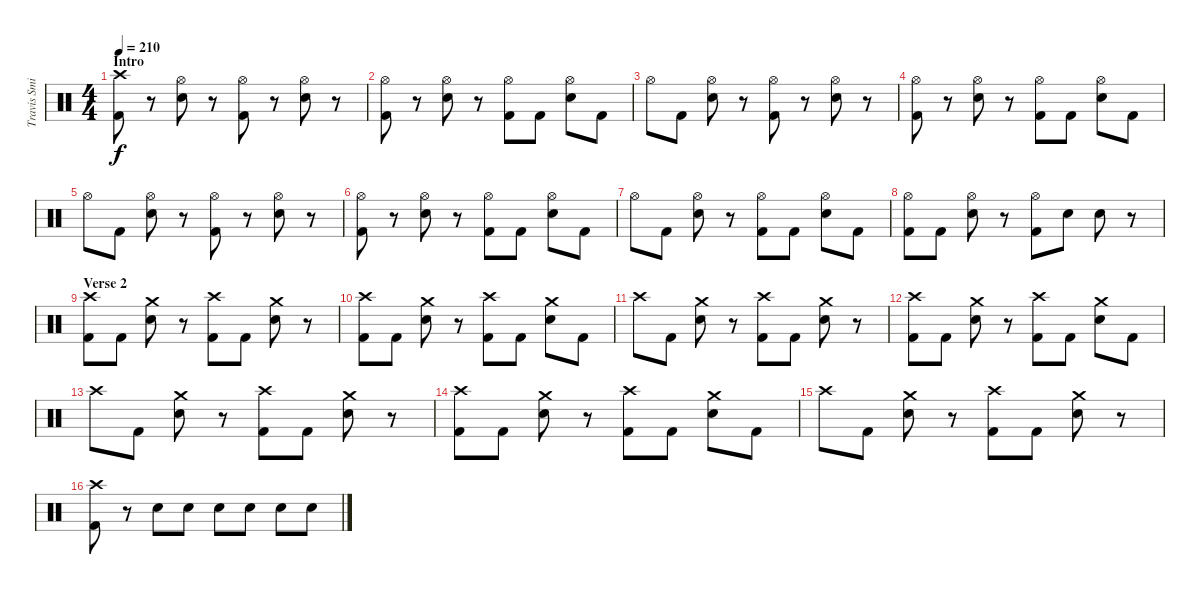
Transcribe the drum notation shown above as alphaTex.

\track ("Travis Smith" "Travis Smi") {instrument percussion}
\staff {score}
\articulation defaults
\ts (4 4)
\section ("" "Intro")
\tempo 210
\clef neutral
\ks c
("Crash high (hit)" "Kick (hit) 2").8{dy f} r.8 ("Hi-Hat (open)" "Electric Snare (hit)").8 r.8 ("Hi-Hat (open)" "Kick (hit) 2").8 r.8 ("Hi-Hat (open)" "Electric Snare (hit)").8 r.8 |
("Hi-Hat (open)" "Kick (hit) 2").8 r.8 ("Hi-Hat (open)" "Electric Snare (hit)").8 r.8 ("Hi-Hat (open)" "Kick (hit) 2").8 "Kick (hit) 2".8 ("Hi-Hat (open)" "Electric Snare (hit)").8 "Kick (hit) 2".8 |
"Hi-Hat (open)".8 "Kick (hit) 2".8 ("Hi-Hat (open)" "Electric Snare (hit)").8 r.8 ("Hi-Hat (open)" "Kick (hit) 2").8 r.8 ("Hi-Hat (open)" "Electric Snare (hit)").8 r.8 |
("Hi-Hat (open)" "Kick (hit) 2").8 r.8 ("Hi-Hat (open)" "Electric Snare (hit)").8 r.8 ("Hi-Hat (open)" "Kick (hit) 2").8 "Kick (hit) 2".8 ("Hi-Hat (open)" "Electric Snare (hit)").8 "Kick (hit) 2".8 |
"Hi-Hat (open)".8 "Kick (hit) 2".8 ("Hi-Hat (open)" "Electric Snare (hit)").8 r.8 ("Hi-Hat (open)" "Kick (hit) 2").8 r.8 ("Hi-Hat (open)" "Electric Snare (hit)").8 r.8 |
("Hi-Hat (open)" "Kick (hit) 2").8 r.8 ("Hi-Hat (open)" "Electric Snare (hit)").8 r.8 ("Hi-Hat (open)" "Kick (hit) 2").8 "Kick (hit) 2".8 ("Hi-Hat (open)" "Electric Snare (hit)").8 "Kick (hit) 2".8 |
"Hi-Hat (open)".8 "Kick (hit) 2".8 ("Hi-Hat (open)" "Electric Snare (hit)").8 r.8 ("Hi-Hat (open)" "Kick (hit) 2").8 "Kick (hit) 2".8 ("Hi-Hat (open)" "Electric Snare (hit)").8 "Kick (hit) 2".8 |
("Hi-Hat (open)" "Kick (hit) 2").8 "Kick (hit) 2".8 ("Hi-Hat (open)" "Electric Snare (hit)").8 r.8 ("Hi-Hat (open)" "Kick (hit) 2").8 "Electric Snare (hit)".8 "Electric Snare (hit)".8 r.8 |
\section ("" "Verse 2")
("Crash high (hit)" "Kick (hit) 2").8 "Kick (hit) 2".8 ("Crash medium (hit)" "Electric Snare (hit)").8 r.8 ("Crash high (hit)" "Kick (hit) 2").8 "Kick (hit) 2".8 ("Crash medium (hit)" "Electric Snare (hit)").8 r.8 |
("Crash high (hit)" "Kick (hit) 2").8 "Kick (hit) 2".8 ("Crash medium (hit)" "Electric Snare (hit)").8 r.8 ("Crash high (hit)" "Kick (hit) 2").8 "Kick (hit) 2".8 ("Crash medium (hit)" "Electric Snare (hit)").8 "Kick (hit) 2".8 |
"Crash high (hit)".8 "Kick (hit) 2".8 ("Crash medium (hit)" "Electric Snare (hit)").8 r.8 ("Crash high (hit)" "Kick (hit) 2").8 "Kick (hit) 2".8 ("Crash medium (hit)" "Electric Snare (hit)").8 r.8 |
("Crash high (hit)" "Kick (hit) 2").8 "Kick (hit) 2".8 ("Crash medium (hit)" "Electric Snare (hit)").8 r.8 ("Crash high (hit)" "Kick (hit) 2").8 "Kick (hit) 2".8 ("Crash medium (hit)" "Electric Snare (hit)").8 "Kick (hit) 2".8 |
"Crash high (hit)".8 "Kick (hit) 2".8 ("Crash medium (hit)" "Electric Snare (hit)").8 r.8 ("Crash high (hit)" "Kick (hit) 2").8 "Kick (hit) 2".8 ("Crash medium (hit)" "Electric Snare (hit)").8 r.8 |
("Crash high (hit)" "Kick (hit) 2").8 "Kick (hit) 2".8 ("Crash medium (hit)" "Electric Snare (hit)").8 r.8 ("Crash high (hit)" "Kick (hit) 2").8 "Kick (hit) 2".8 ("Crash medium (hit)" "Electric Snare (hit)").8 "Kick (hit) 2".8 |
"Crash high (hit)".8 "Kick (hit) 2".8 ("Crash medium (hit)" "Electric Snare (hit)").8 r.8 ("Crash high (hit)" "Kick (hit) 2").8 "Kick (hit) 2".8 ("Crash medium (hit)" "Electric Snare (hit)").8 r.8 |
("Crash high (hit)" "Kick (hit) 2").8 r.8 "Electric Snare (hit)".8 "Electric Snare (hit)".8 "Electric Snare (hit)".8 "Electric Snare (hit)".8 "Electric Snare (hit)".8 "Electric Snare (hit)".8
